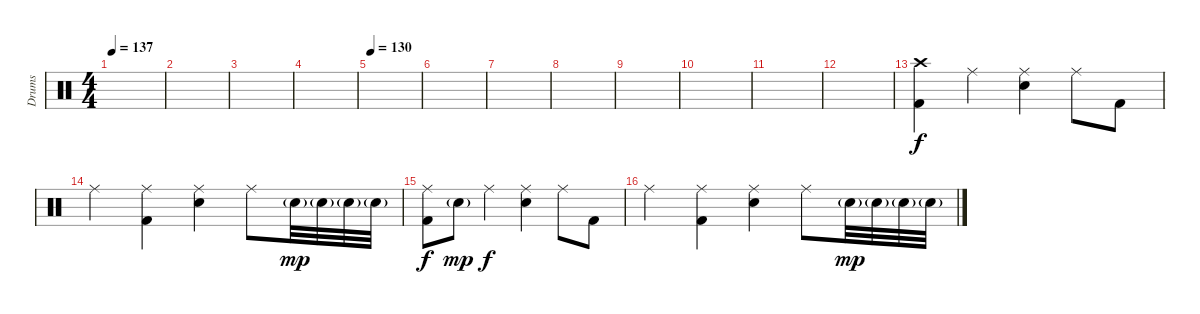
\track ("Drums" "Drums") {instrument percussion}
\staff {score}
\articulation defaults
\ts (4 4)
\tempo 137
\tempo 105
\tempo 137
\clef neutral
\ks c
|
|
|
|
\tempo 130
|
|
|
|
|
|
|
|
("Crash high (hit)" "Kick (hit) 2").4 "Ride (middle)".4 ("Ride (middle)" "Electric Snare (hit)").4 "Ride (middle)".8 "Kick (hit) 2".8 |
"Ride (middle)".4 ("Ride (middle)" "Kick (hit) 2").4 ("Ride (middle)" "Electric Snare (hit)").4 "Ride (middle)".8 "Electric Snare (hit)"{g}.32{dy mp} "Electric Snare (hit)"{g}.32 "Electric Snare (hit)"{g}.32 "Electric Snare (hit)"{g}.32 |
("Ride (middle)" "Kick (hit) 2").8{dy f} "Electric Snare (hit)"{g}.8{dy mp} "Ride (middle)".4{dy f} ("Ride (middle)" "Electric Snare (hit)").4 "Ride (middle)".8 "Kick (hit) 2".8 |
"Ride (middle)".4 ("Ride (middle)" "Kick (hit) 2").4 ("Ride (middle)" "Electric Snare (hit)").4 "Ride (middle)".8 "Electric Snare (hit)"{g}.32{dy mp} "Electric Snare (hit)"{g}.32 "Electric Snare (hit)"{g}.32 "Electric Snare (hit)"{g}.32
